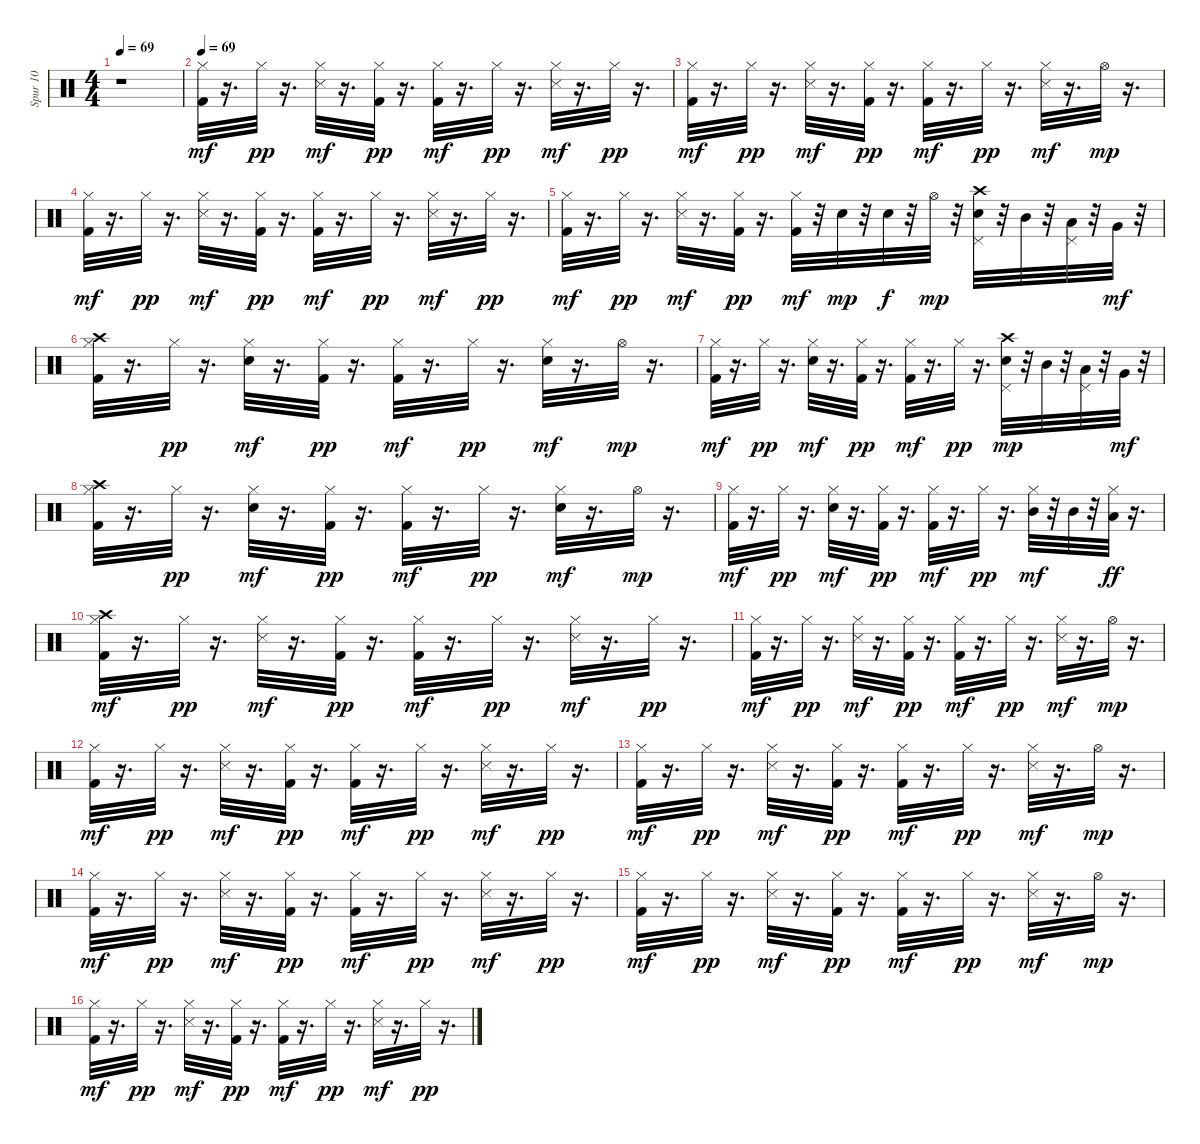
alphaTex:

\track ("Spur 10" "Spur 10") {instrument percussion}
\staff {score}
\articulation defaults
\ts (4 4)
\tempo 69
\clef neutral
\ks c
r.1{dy mf} |
\tempo 69
("Kick (hit) 2" "Hi-Hat (closed)").32 r.16{d} "Hi-Hat (closed)".32{dy pp} r.16{d} ("Snare (side stick) 3" "Hi-Hat (closed)").32{dy mf} r.16{d} ("Kick (hit) 2" "Hi-Hat (closed)").32{dy pp} r.16{d} ("Kick (hit) 2" "Hi-Hat (closed)").32{dy mf} r.16{d} "Hi-Hat (closed)".32{dy pp} r.16{d} ("Snare (side stick) 3" "Hi-Hat (closed)").32{dy mf} r.16{d} "Hi-Hat (closed)".32{dy pp} r.16{d} |
("Kick (hit) 2" "Hi-Hat (closed)").32{dy mf} r.16{d} "Hi-Hat (closed)".32{dy pp} r.16{d} ("Snare (side stick) 3" "Hi-Hat (closed)").32{dy mf} r.16{d} ("Kick (hit) 2" "Hi-Hat (closed)").32{dy pp} r.16{d} ("Kick (hit) 2" "Hi-Hat (closed)").32{dy mf} r.16{d} "Hi-Hat (closed)".32{dy pp} r.16{d} ("Snare (side stick) 3" "Hi-Hat (closed)").32{dy mf} r.16{d} "Hi-Hat (open)".32{dy mp} r.16{d} |
("Kick (hit) 2" "Hi-Hat (closed)").32{dy mf} r.16{d} "Hi-Hat (closed)".32{dy pp} r.16{d} ("Snare (side stick) 3" "Hi-Hat (closed)").32{dy mf} r.16{d} ("Kick (hit) 2" "Hi-Hat (closed)").32{dy pp} r.16{d} ("Kick (hit) 2" "Hi-Hat (closed)").32{dy mf} r.16{d} "Hi-Hat (closed)".32{dy pp} r.16{d} ("Snare (side stick) 3" "Hi-Hat (closed)").32{dy mf} r.16{d} "Hi-Hat (closed)".32{dy pp} r.16{d} |
("Kick (hit) 2" "Hi-Hat (closed)").32{dy mf} r.16{d} "Hi-Hat (closed)".32{dy pp} r.16{d} ("Snare (side stick) 3" "Hi-Hat (closed)").32{dy mf} r.16{d} ("Kick (hit) 2" "Hi-Hat (closed)").32{dy pp} r.16{d} ("Kick (hit) 2" "Hi-Hat (closed)").32{dy mf} r.32 "Electric Snare (hit)".32{dy mp} r.32 "Electric Snare (hit)".32{dy f} r.32 "Hi-Hat (open)".32{dy mp} r.32 ("Electric Snare (hit)" "Pedal Hi-Hat (hit)" "Crash high (hit)").32 r.32 "Mid Tom (hit)".32 r.32 ("Pedal Hi-Hat (hit)" "Low Tom (hit)").32 r.32 "Very Low Tom (hit)".32{dy mf} r.32 |
("Crash high (hit)" "Kick (hit) 2" "Hi-Hat (closed)").32 r.16{d} "Hi-Hat (closed)".32{dy pp} r.16{d} ("Electric Snare (hit)" "Hi-Hat (closed)").32{dy mf} r.16{d} ("Kick (hit) 2" "Hi-Hat (closed)").32{dy pp} r.16{d} ("Kick (hit) 2" "Hi-Hat (closed)").32{dy mf} r.16{d} "Hi-Hat (closed)".32{dy pp} r.16{d} ("Electric Snare (hit)" "Hi-Hat (closed)").32{dy mf} r.16{d} "Hi-Hat (open)".32{dy mp} r.16{d} |
("Kick (hit) 2" "Hi-Hat (closed)").32{dy mf} r.16{d} "Hi-Hat (closed)".32{dy pp} r.16{d} ("Electric Snare (hit)" "Hi-Hat (closed)").32{dy mf} r.16{d} ("Kick (hit) 2" "Hi-Hat (closed)").32{dy pp} r.16{d} ("Kick (hit) 2" "Hi-Hat (closed)").32{dy mf} r.16{d} "Hi-Hat (closed)".32{dy pp} r.16{d} ("Electric Snare (hit)" "Pedal Hi-Hat (hit)" "Crash high (hit)").32{dy mp} r.32 "Mid Tom (hit)".32 r.32 ("Pedal Hi-Hat (hit)" "Low Tom (hit)").32 r.32 "Very Low Tom (hit)".32{dy mf} r.32 |
("Crash high (hit)" "Kick (hit) 2" "Hi-Hat (closed)").32 r.16{d} "Hi-Hat (closed)".32{dy pp} r.16{d} ("Electric Snare (hit)" "Hi-Hat (closed)").32{dy mf} r.16{d} ("Kick (hit) 2" "Hi-Hat (closed)").32{dy pp} r.16{d} ("Kick (hit) 2" "Hi-Hat (closed)").32{dy mf} r.16{d} "Hi-Hat (closed)".32{dy pp} r.16{d} ("Electric Snare (hit)" "Hi-Hat (closed)").32{dy mf} r.16{d} "Hi-Hat (open)".32{dy mp} r.16{d} |
("Kick (hit) 2" "Hi-Hat (closed)").32{dy mf} r.16{d} "Hi-Hat (closed)".32{dy pp} r.16{d} ("Electric Snare (hit)" "Hi-Hat (closed)").32{dy mf} r.16{d} ("Kick (hit) 2" "Hi-Hat (closed)").32{dy pp} r.16{d} ("Kick (hit) 2" "Hi-Hat (closed)").32{dy mf} r.16{d} "Hi-Hat (closed)".32{dy pp} r.16{d} ("Hi-Hat (closed)" "Mid Tom (hit)").32{dy mf} r.32 "Mid Tom (hit)".32 r.32 ("Hi-Hat (closed)" "Low Tom (hit)").32{dy ff} r.16{d} |
("Crash high (hit)" "Kick (hit) 2" "Hi-Hat (closed)").32{dy mf} r.16{d} "Hi-Hat (closed)".32{dy pp} r.16{d} ("Snare (side stick) 3" "Hi-Hat (closed)").32{dy mf} r.16{d} ("Kick (hit) 2" "Hi-Hat (closed)").32{dy pp} r.16{d} ("Kick (hit) 2" "Hi-Hat (closed)").32{dy mf} r.16{d} "Hi-Hat (closed)".32{dy pp} r.16{d} ("Snare (side stick) 3" "Hi-Hat (closed)").32{dy mf} r.16{d} "Hi-Hat (closed)".32{dy pp} r.16{d} |
("Kick (hit) 2" "Hi-Hat (closed)").32{dy mf} r.16{d} "Hi-Hat (closed)".32{dy pp} r.16{d} ("Snare (side stick) 3" "Hi-Hat (closed)").32{dy mf} r.16{d} ("Kick (hit) 2" "Hi-Hat (closed)").32{dy pp} r.16{d} ("Kick (hit) 2" "Hi-Hat (closed)").32{dy mf} r.16{d} "Hi-Hat (closed)".32{dy pp} r.16{d} ("Snare (side stick) 3" "Hi-Hat (closed)").32{dy mf} r.16{d} "Hi-Hat (open)".32{dy mp} r.16{d} |
("Kick (hit) 2" "Hi-Hat (closed)").32{dy mf} r.16{d} "Hi-Hat (closed)".32{dy pp} r.16{d} ("Snare (side stick) 3" "Hi-Hat (closed)").32{dy mf} r.16{d} ("Kick (hit) 2" "Hi-Hat (closed)").32{dy pp} r.16{d} ("Kick (hit) 2" "Hi-Hat (closed)").32{dy mf} r.16{d} "Hi-Hat (closed)".32{dy pp} r.16{d} ("Snare (side stick) 3" "Hi-Hat (closed)").32{dy mf} r.16{d} "Hi-Hat (closed)".32{dy pp} r.16{d} |
("Kick (hit) 2" "Hi-Hat (closed)").32{dy mf} r.16{d} "Hi-Hat (closed)".32{dy pp} r.16{d} ("Snare (side stick) 3" "Hi-Hat (closed)").32{dy mf} r.16{d} ("Kick (hit) 2" "Hi-Hat (closed)").32{dy pp} r.16{d} ("Kick (hit) 2" "Hi-Hat (closed)").32{dy mf} r.16{d} "Hi-Hat (closed)".32{dy pp} r.16{d} ("Snare (side stick) 3" "Hi-Hat (closed)").32{dy mf} r.16{d} "Hi-Hat (open)".32{dy mp} r.16{d} |
("Kick (hit) 2" "Hi-Hat (closed)").32{dy mf} r.16{d} "Hi-Hat (closed)".32{dy pp} r.16{d} ("Snare (side stick) 3" "Hi-Hat (closed)").32{dy mf} r.16{d} ("Kick (hit) 2" "Hi-Hat (closed)").32{dy pp} r.16{d} ("Kick (hit) 2" "Hi-Hat (closed)").32{dy mf} r.16{d} "Hi-Hat (closed)".32{dy pp} r.16{d} ("Snare (side stick) 3" "Hi-Hat (closed)").32{dy mf} r.16{d} "Hi-Hat (closed)".32{dy pp} r.16{d} |
("Kick (hit) 2" "Hi-Hat (closed)").32{dy mf} r.16{d} "Hi-Hat (closed)".32{dy pp} r.16{d} ("Snare (side stick) 3" "Hi-Hat (closed)").32{dy mf} r.16{d} ("Kick (hit) 2" "Hi-Hat (closed)").32{dy pp} r.16{d} ("Kick (hit) 2" "Hi-Hat (closed)").32{dy mf} r.16{d} "Hi-Hat (closed)".32{dy pp} r.16{d} ("Snare (side stick) 3" "Hi-Hat (closed)").32{dy mf} r.16{d} "Hi-Hat (open)".32{dy mp} r.16{d} |
("Kick (hit) 2" "Hi-Hat (closed)").32{dy mf} r.16{d} "Hi-Hat (closed)".32{dy pp} r.16{d} ("Snare (side stick) 3" "Hi-Hat (closed)").32{dy mf} r.16{d} ("Kick (hit) 2" "Hi-Hat (closed)").32{dy pp} r.16{d} ("Kick (hit) 2" "Hi-Hat (closed)").32{dy mf} r.16{d} "Hi-Hat (closed)".32{dy pp} r.16{d} ("Snare (side stick) 3" "Hi-Hat (closed)").32{dy mf} r.16{d} "Hi-Hat (closed)".32{dy pp} r.16{d}
